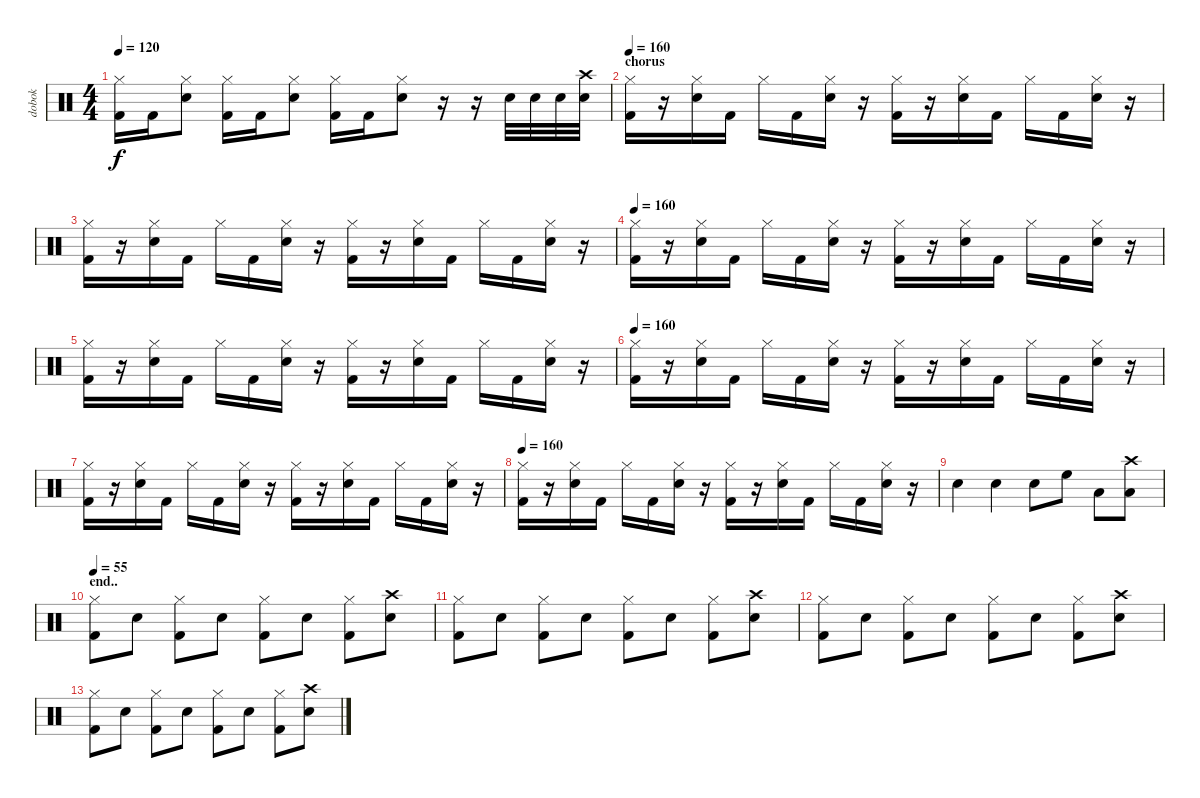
\track ("dobok" "dobok") {instrument percussion}
\staff {score}
\articulation defaults
\ts (4 4)
\tempo 120
\clef neutral
\ks c
("Hi-Hat (closed)" "Kick (hit) 2").16{dy f} "Kick (hit) 2".16 ("Hi-Hat (closed)" "Snare (hit) 2").8 ("Hi-Hat (closed)" "Kick (hit) 2").16 "Kick (hit) 2".16 ("Hi-Hat (closed)" "Snare (hit) 2").8 ("Hi-Hat (closed)" "Kick (hit) 2").16 "Kick (hit) 2".16 ("Hi-Hat (closed)" "Snare (hit) 2").8 r.16 r.16 "Snare (hit) 2".32 "Snare (hit) 2".32 "Snare (hit) 2".32 ("Snare (hit) 2" "Crash high (hit)").32 |
\section ("" "chorus")
\tempo 160
("Hi-Hat (closed)" "Kick (hit) 2").16 r.16 ("Hi-Hat (closed)" "Snare (hit) 2").16 "Kick (hit) 2".16 "Hi-Hat (closed)".16 "Kick (hit) 2".16 ("Hi-Hat (closed)" "Snare (hit) 2").16 r.16 ("Hi-Hat (closed)" "Kick (hit) 2").16 r.16 ("Hi-Hat (closed)" "Snare (hit) 2").16 "Kick (hit) 2".16 "Hi-Hat (closed)".16 "Kick (hit) 2".16 ("Hi-Hat (closed)" "Snare (hit) 2").16 r.16 |
("Hi-Hat (closed)" "Kick (hit) 2").16 r.16 ("Hi-Hat (closed)" "Snare (hit) 2").16 "Kick (hit) 2".16 "Hi-Hat (closed)".16 "Kick (hit) 2".16 ("Hi-Hat (closed)" "Snare (hit) 2").16 r.16 ("Hi-Hat (closed)" "Kick (hit) 2").16 r.16 ("Hi-Hat (closed)" "Snare (hit) 2").16 "Kick (hit) 2".16 "Hi-Hat (closed)".16 "Kick (hit) 2".16 ("Hi-Hat (closed)" "Snare (hit) 2").16 r.16 |
\tempo 160
("Hi-Hat (closed)" "Kick (hit) 2").16 r.16 ("Hi-Hat (closed)" "Snare (hit) 2").16 "Kick (hit) 2".16 "Hi-Hat (closed)".16 "Kick (hit) 2".16 ("Hi-Hat (closed)" "Snare (hit) 2").16 r.16 ("Hi-Hat (closed)" "Kick (hit) 2").16 r.16 ("Hi-Hat (closed)" "Snare (hit) 2").16 "Kick (hit) 2".16 "Hi-Hat (closed)".16 "Kick (hit) 2".16 ("Hi-Hat (closed)" "Snare (hit) 2").16 r.16 |
("Hi-Hat (closed)" "Kick (hit) 2").16 r.16 ("Hi-Hat (closed)" "Snare (hit) 2").16 "Kick (hit) 2".16 "Hi-Hat (closed)".16 "Kick (hit) 2".16 ("Hi-Hat (closed)" "Snare (hit) 2").16 r.16 ("Hi-Hat (closed)" "Kick (hit) 2").16 r.16 ("Hi-Hat (closed)" "Snare (hit) 2").16 "Kick (hit) 2".16 "Hi-Hat (closed)".16 "Kick (hit) 2".16 ("Hi-Hat (closed)" "Snare (hit) 2").16 r.16 |
\tempo 160
("Hi-Hat (closed)" "Kick (hit) 2").16 r.16 ("Hi-Hat (closed)" "Snare (hit) 2").16 "Kick (hit) 2".16 "Hi-Hat (closed)".16 "Kick (hit) 2".16 ("Hi-Hat (closed)" "Snare (hit) 2").16 r.16 ("Hi-Hat (closed)" "Kick (hit) 2").16 r.16 ("Hi-Hat (closed)" "Snare (hit) 2").16 "Kick (hit) 2".16 "Hi-Hat (closed)".16 "Kick (hit) 2".16 ("Hi-Hat (closed)" "Snare (hit) 2").16 r.16 |
("Hi-Hat (closed)" "Kick (hit) 2").16 r.16 ("Hi-Hat (closed)" "Snare (hit) 2").16 "Kick (hit) 2".16 "Hi-Hat (closed)".16 "Kick (hit) 2".16 ("Hi-Hat (closed)" "Snare (hit) 2").16 r.16 ("Hi-Hat (closed)" "Kick (hit) 2").16 r.16 ("Hi-Hat (closed)" "Snare (hit) 2").16 "Kick (hit) 2".16 "Hi-Hat (closed)".16 "Kick (hit) 2".16 ("Hi-Hat (closed)" "Snare (hit) 2").16 r.16 |
\tempo 160
("Hi-Hat (closed)" "Kick (hit) 2").16 r.16 ("Hi-Hat (closed)" "Snare (hit) 2").16 "Kick (hit) 2".16 "Hi-Hat (closed)".16 "Kick (hit) 2".16 ("Hi-Hat (closed)" "Snare (hit) 2").16 r.16 ("Hi-Hat (closed)" "Kick (hit) 2").16 r.16 ("Hi-Hat (closed)" "Snare (hit) 2").16 "Kick (hit) 2".16 "Hi-Hat (closed)".16 "Kick (hit) 2".16 ("Hi-Hat (closed)" "Snare (hit) 2").16 r.16 |
"Snare (hit) 2".4 "Snare (hit) 2".4 "Snare (hit) 2".8 "High Floor Tom (hit)".8 "Low Tom (hit)".8 ("Low Floor Tom (hit)" "Crash high (hit)").8 |
\section ("" "end..")
\tempo 55
("Hi-Hat (closed)" "Kick (hit) 2").8 "Snare (hit) 2".8 ("Hi-Hat (closed)" "Kick (hit) 2").8 "Snare (hit) 2".8 ("Hi-Hat (closed)" "Kick (hit) 2").8 "Snare (hit) 2".8 ("Hi-Hat (closed)" "Kick (hit) 2").8 ("Snare (hit) 2" "Crash high (hit)").8 |
("Hi-Hat (closed)" "Kick (hit) 2").8 "Snare (hit) 2".8 ("Hi-Hat (closed)" "Kick (hit) 2").8 "Snare (hit) 2".8 ("Hi-Hat (closed)" "Kick (hit) 2").8 "Snare (hit) 2".8 ("Hi-Hat (closed)" "Kick (hit) 2").8 ("Snare (hit) 2" "Crash high (hit)").8 |
("Hi-Hat (closed)" "Kick (hit) 2").8 "Snare (hit) 2".8 ("Hi-Hat (closed)" "Kick (hit) 2").8 "Snare (hit) 2".8 ("Hi-Hat (closed)" "Kick (hit) 2").8 "Snare (hit) 2".8 ("Hi-Hat (closed)" "Kick (hit) 2").8 ("Snare (hit) 2" "Crash high (hit)").8 |
("Hi-Hat (closed)" "Kick (hit) 2").8 "Snare (hit) 2".8 ("Hi-Hat (closed)" "Kick (hit) 2").8 "Snare (hit) 2".8 ("Hi-Hat (closed)" "Kick (hit) 2").8 "Snare (hit) 2".8 ("Hi-Hat (closed)" "Kick (hit) 2").8 ("Snare (hit) 2" "Crash high (hit)").8
